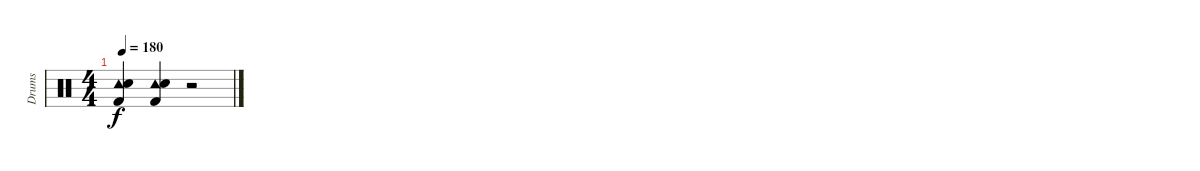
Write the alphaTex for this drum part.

\track ("Drums" "Drums") {instrument percussion}
\staff {score}
\articulation defaults
\ts (4 4)
\tempo 180
\clef neutral
\ks c
("Tambourine (hit)" "Snare (hit) 2" "Kick (hit) 2").4{dy f} ("Tambourine (hit)" "Snare (hit) 2" "Kick (hit) 2").4 r.2
